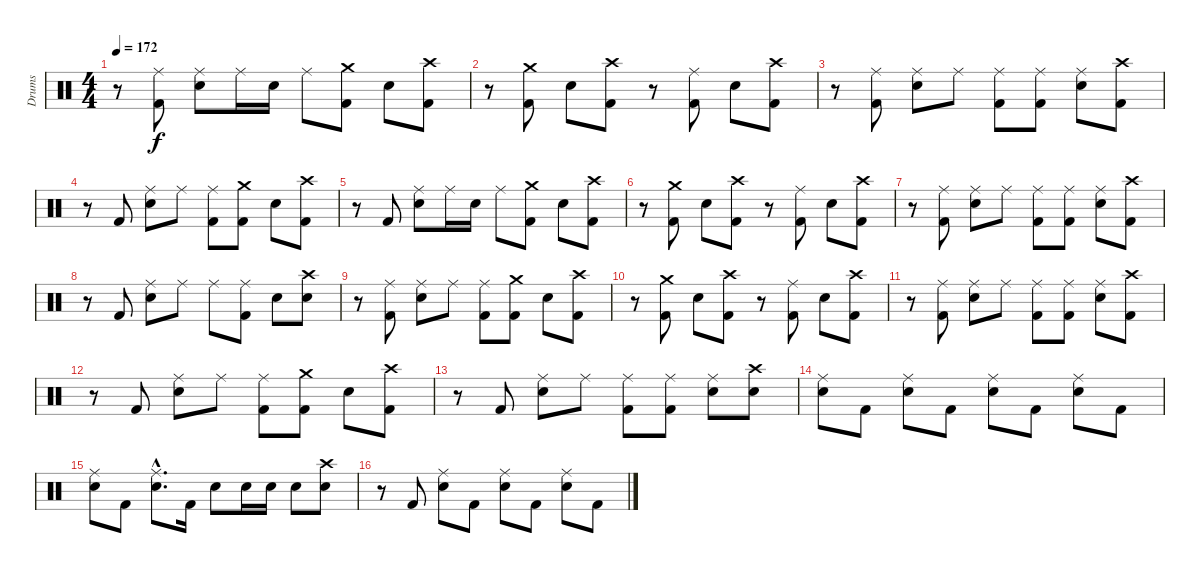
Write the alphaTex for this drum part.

\track ("Drums" "Drums") {instrument percussion}
\staff {score}
\articulation defaults
\ts (4 4)
\tempo 172
\clef neutral
\ks c
r.8{dy f} ("Ride (middle)" "Kick (hit) 2").8 ("Ride (middle)" "Electric Snare (hit)").8 "Ride (middle)".16 "Electric Snare (hit)".16 "Ride (middle)".8 ("Crash medium (hit)" "Kick (hit) 2").8 "Electric Snare (hit)".8 ("Crash high (hit)" "Kick (hit) 2").8 |
r.8 ("Crash medium (hit)" "Kick (hit) 2").8 "Electric Snare (hit)".8 ("Crash high (hit)" "Kick (hit) 2").8 r.8 ("Ride (middle)" "Kick (hit) 2").8 "Electric Snare (hit)".8 ("Crash high (hit)" "Kick (hit) 2").8 |
r.8 ("Ride (middle)" "Kick (hit) 2").8 ("Ride (middle)" "Electric Snare (hit)").8 "Ride (middle)".8 ("Ride (middle)" "Kick (hit) 2").8 ("Ride (middle)" "Kick (hit) 2").8 ("Ride (middle)" "Electric Snare (hit)").8 ("Crash high (hit)" "Kick (hit) 2").8 |
r.8 "Kick (hit) 2".8 ("Ride (middle)" "Electric Snare (hit)").8 "Ride (middle)".8 ("Ride (middle)" "Kick (hit) 2").8 ("Crash medium (hit)" "Kick (hit) 2").8 "Electric Snare (hit)".8 ("Crash high (hit)" "Kick (hit) 2").8 |
r.8 "Kick (hit) 2".8 ("Ride (middle)" "Electric Snare (hit)").8 "Ride (middle)".16 "Electric Snare (hit)".16 "Ride (middle)".8 ("Crash medium (hit)" "Kick (hit) 2").8 "Electric Snare (hit)".8 ("Crash high (hit)" "Kick (hit) 2").8 |
r.8 ("Crash medium (hit)" "Kick (hit) 2").8 "Electric Snare (hit)".8 ("Crash high (hit)" "Kick (hit) 2").8 r.8 ("Ride (middle)" "Kick (hit) 2").8 "Electric Snare (hit)".8 ("Crash high (hit)" "Kick (hit) 2").8 |
r.8 ("Ride (middle)" "Kick (hit) 2").8 ("Ride (middle)" "Electric Snare (hit)").8 "Ride (middle)".8 ("Ride (middle)" "Kick (hit) 2").8 ("Ride (middle)" "Kick (hit) 2").8 ("Ride (middle)" "Electric Snare (hit)").8 ("Crash high (hit)" "Kick (hit) 2").8 |
r.8 "Kick (hit) 2".8 ("Ride (middle)" "Electric Snare (hit)").8 "Ride (middle)".8 "Ride (middle)".8 ("Ride (middle)" "Kick (hit) 2").8 "Electric Snare (hit)".8 ("Crash high (hit)" "Electric Snare (hit)").8 |
r.8 ("Ride (middle)" "Kick (hit) 2").8 ("Ride (middle)" "Electric Snare (hit)").8 "Ride (middle)".8 ("Ride (middle)" "Kick (hit) 2").8 ("Crash medium (hit)" "Kick (hit) 2").8 "Electric Snare (hit)".8 ("Crash high (hit)" "Kick (hit) 2").8 |
r.8 ("Crash medium (hit)" "Kick (hit) 2").8 "Electric Snare (hit)".8 ("Crash high (hit)" "Kick (hit) 2").8 r.8 ("Ride (middle)" "Kick (hit) 2").8 "Electric Snare (hit)".8 ("Crash high (hit)" "Kick (hit) 2").8 |
r.8 ("Ride (middle)" "Kick (hit) 2").8 ("Ride (middle)" "Electric Snare (hit)").8 "Ride (middle)".8 ("Ride (middle)" "Kick (hit) 2").8 ("Ride (middle)" "Kick (hit) 2").8 ("Ride (middle)" "Electric Snare (hit)").8 ("Crash high (hit)" "Kick (hit) 2").8 |
r.8 "Kick (hit) 2".8 ("Ride (middle)" "Electric Snare (hit)").8 "Ride (middle)".8 ("Ride (middle)" "Kick (hit) 2").8 ("Crash medium (hit)" "Kick (hit) 2").8 "Electric Snare (hit)".8 ("Crash high (hit)" "Kick (hit) 2").8 |
r.8 "Kick (hit) 2".8 ("Ride (middle)" "Electric Snare (hit)").8 "Ride (middle)".8 ("Ride (middle)" "Kick (hit) 2").8 ("Ride (middle)" "Kick (hit) 2").8 ("Ride (middle)" "Electric Snare (hit)").8 ("Crash high (hit)" "Electric Snare (hit)").8 |
("Ride (middle)" "Electric Snare (hit)").8 "Kick (hit) 2".8 ("Ride (middle)" "Electric Snare (hit)").8 "Kick (hit) 2".8 ("Ride (middle)" "Electric Snare (hit)").8 "Kick (hit) 2".8 ("Ride (middle)" "Electric Snare (hit)").8 "Kick (hit) 2".8 |
("Ride (middle)" "Electric Snare (hit)").8 "Kick (hit) 2".8 ("Ride (middle)"{hac} "Electric Snare (hit)"{hac}).8{d} "Kick (hit) 2".16 "Electric Snare (hit)".8 "Electric Snare (hit)".16 "Electric Snare (hit)".16 "Electric Snare (hit)".8 ("Crash high (hit)" "Electric Snare (hit)").8 |
r.8 "Kick (hit) 2".8 ("Ride (middle)" "Electric Snare (hit)").8 "Kick (hit) 2".8 ("Ride (middle)" "Electric Snare (hit)").8 "Kick (hit) 2".8 ("Ride (middle)" "Electric Snare (hit)").8 "Kick (hit) 2".8
